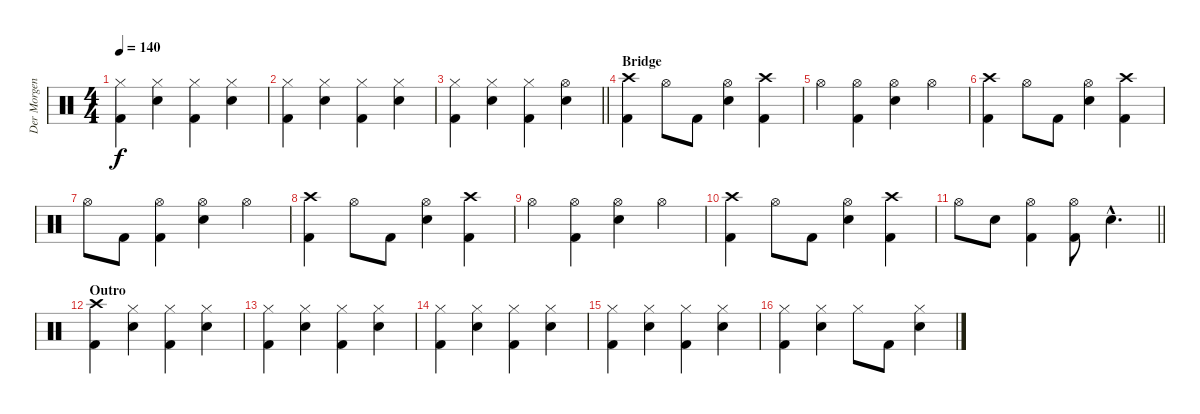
\track ("Der Morgenstern" "Der Morgen") {instrument percussion}
\staff {score}
\articulation defaults
\ts (4 4)
\tempo 140
\clef neutral
\ks c
("Hi-Hat (closed)" "Kick (hit) 2").4{dy f} ("Hi-Hat (closed)" "Snare (hit) 2").4 ("Hi-Hat (closed)" "Kick (hit) 2").4 ("Hi-Hat (closed)" "Snare (hit) 2").4 |
("Hi-Hat (closed)" "Kick (hit) 2").4 ("Hi-Hat (closed)" "Snare (hit) 2").4 ("Hi-Hat (closed)" "Kick (hit) 2").4 ("Hi-Hat (closed)" "Snare (hit) 2").4 |
\barLineRight lightlight
("Hi-Hat (closed)" "Kick (hit) 2").4 ("Hi-Hat (closed)" "Snare (hit) 2").4 ("Hi-Hat (closed)" "Kick (hit) 2").4 ("Hi-Hat (open)" "Snare (hit) 2").4 |
\section ("" "Bridge")
("Crash high (hit)" "Kick (hit) 2").4 "Hi-Hat (open)".8 "Kick (hit) 2".8 ("Hi-Hat (open)" "Snare (hit) 2").4 ("Crash high (hit)" "Kick (hit) 2").4 |
"Hi-Hat (open)".4 ("Hi-Hat (open)" "Kick (hit) 2").4 ("Hi-Hat (open)" "Snare (hit) 2").4 "Hi-Hat (open)".4 |
("Crash high (hit)" "Kick (hit) 2").4 "Hi-Hat (open)".8 "Kick (hit) 2".8 ("Hi-Hat (open)" "Snare (hit) 2").4 ("Crash high (hit)" "Kick (hit) 2").4 |
"Hi-Hat (open)".8 "Kick (hit) 2".8 ("Hi-Hat (open)" "Kick (hit) 2").4 ("Hi-Hat (open)" "Snare (hit) 2").4 "Hi-Hat (open)".4 |
("Crash high (hit)" "Kick (hit) 2").4 "Hi-Hat (open)".8 "Kick (hit) 2".8 ("Hi-Hat (open)" "Snare (hit) 2").4 ("Crash high (hit)" "Kick (hit) 2").4 |
"Hi-Hat (open)".4 ("Hi-Hat (open)" "Kick (hit) 2").4 ("Hi-Hat (open)" "Snare (hit) 2").4 "Hi-Hat (open)".4 |
("Crash high (hit)" "Kick (hit) 2").4 "Hi-Hat (open)".8 "Kick (hit) 2".8 ("Hi-Hat (open)" "Snare (hit) 2").4 ("Crash high (hit)" "Kick (hit) 2").4 |
\barLineRight lightlight "Hi-Hat (open)".8 "Snare (hit) 2".8
("Hi-Hat (open)" "Kick (hit) 2").4 ("Hi-Hat (open)" "Kick (hit) 2").8 "Snare (hit) 2"{hac}.4{d} |
\section ("" "Outro")
("Crash high (hit)" "Kick (hit) 2").4 ("Hi-Hat (closed)" "Snare (hit) 2").4 ("Hi-Hat (closed)" "Kick (hit) 2").4 ("Hi-Hat (closed)" "Snare (hit) 2").4 |
("Hi-Hat (closed)" "Kick (hit) 2").4 ("Hi-Hat (closed)" "Snare (hit) 2").4 ("Hi-Hat (closed)" "Kick (hit) 2").4 ("Hi-Hat (closed)" "Snare (hit) 2").4 |
("Hi-Hat (closed)" "Kick (hit) 2").4 ("Hi-Hat (closed)" "Snare (hit) 2").4 ("Hi-Hat (closed)" "Kick (hit) 2").4 ("Hi-Hat (closed)" "Snare (hit) 2").4 |
("Hi-Hat (closed)" "Kick (hit) 2").4 ("Hi-Hat (closed)" "Snare (hit) 2").4 ("Hi-Hat (closed)" "Kick (hit) 2").4 ("Hi-Hat (closed)" "Snare (hit) 2").4 |
("Hi-Hat (closed)" "Kick (hit) 2").4 ("Hi-Hat (closed)" "Snare (hit) 2").4 "Hi-Hat (closed)".8 "Kick (hit) 2".8 ("Hi-Hat (closed)" "Snare (hit) 2").4
